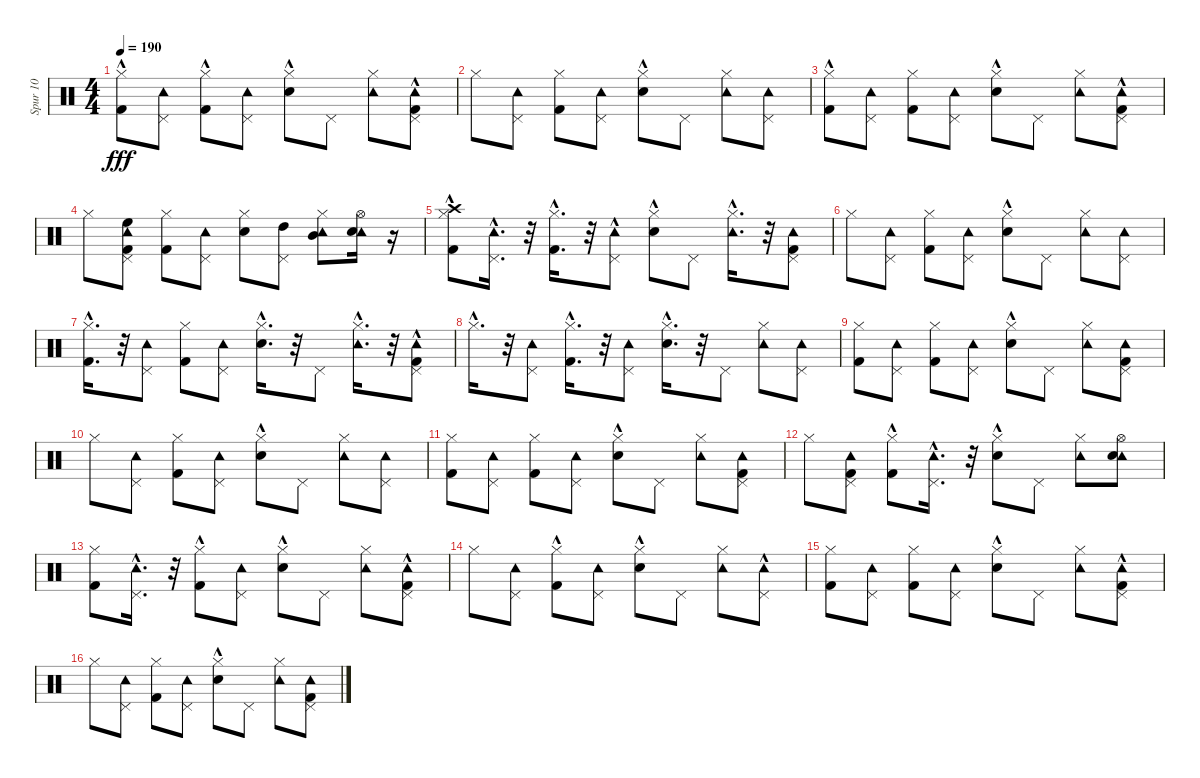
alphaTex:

\track ("Spur 10" "Spur 10") {instrument percussion}
\staff {score}
\articulation defaults
\ts (4 4)
\tempo 190
\clef neutral
\ks c
("Hi-Hat (closed)" "Kick (hit) 2"{hac}).8{dy fff} ("Tambourine (hit)" "Pedal Hi-Hat (hit)").8 ("Hi-Hat (closed)" "Kick (hit) 2"{hac}).8 ("Pedal Hi-Hat (hit)" "Tambourine (hit)").8 ("Hi-Hat (closed)" "Electric Snare (hit)"{hac}).8 "Pedal Hi-Hat (hit)".8 ("Tambourine (hit)" "Hi-Hat (closed)").8 ("Pedal Hi-Hat (hit)" "Kick (hit) 2"{hac} "Tambourine (hit)").8 |
"Hi-Hat (closed)".8 ("Tambourine (hit)" "Pedal Hi-Hat (hit)").8 ("Hi-Hat (closed)" "Kick (hit) 2").8 ("Pedal Hi-Hat (hit)" "Tambourine (hit)").8 ("Hi-Hat (closed)" "Electric Snare (hit)"{hac}).8 "Pedal Hi-Hat (hit)".8 ("Tambourine (hit)" "Hi-Hat (closed)").8 ("Pedal Hi-Hat (hit)" "Tambourine (hit)").8 |
("Hi-Hat (closed)" "Kick (hit) 2"{hac}).8 ("Tambourine (hit)" "Pedal Hi-Hat (hit)").8 ("Hi-Hat (closed)" "Kick (hit) 2").8 ("Pedal Hi-Hat (hit)" "Tambourine (hit)").8 ("Hi-Hat (closed)" "Electric Snare (hit)"{hac}).8 "Pedal Hi-Hat (hit)".8 ("Tambourine (hit)" "Hi-Hat (closed)").8 ("Pedal Hi-Hat (hit)" "Kick (hit) 2"{hac} "Tambourine (hit)").8 |
"Hi-Hat (closed)".8 ("High Floor Tom (hit)" "Tambourine (hit)" "Kick (hit) 2" "Pedal Hi-Hat (hit)").8 ("Kick (hit) 2" "Hi-Hat (closed)").8 ("Tambourine (hit)" "Pedal Hi-Hat (hit)").8 ("Electric Snare (hit)" "Hi-Hat (closed)").8 ("Pedal Hi-Hat (hit)" "High Tom (hit)").8 ("Tambourine (hit)" "Hi-Hat (closed)" "Mid Tom (hit)").8 ("Tambourine (hit)" "Electric Snare (hit)" "Hi-Hat (open)").16 r.16 |
("Crash high (hit)"{hac} "Kick (hit) 2" "Hi-Hat (closed)").8 ("Tambourine (hit)" "Pedal Hi-Hat (hit)"{hac}).16{d} r.32 ("Hi-Hat (closed)"{hac} "Kick (hit) 2").16{d} r.32 ("Tambourine (hit)"{hac} "Pedal Hi-Hat (hit)").8 ("Hi-Hat (closed)" "Electric Snare (hit)"{hac}).8 "Pedal Hi-Hat (hit)".8 ("Tambourine (hit)" "Hi-Hat (closed)"{hac}).16{d} r.32 ("Tambourine (hit)" "Pedal Hi-Hat (hit)" "Kick (hit) 2").8 |
"Hi-Hat (closed)".8 ("Tambourine (hit)" "Pedal Hi-Hat (hit)").8 ("Hi-Hat (closed)" "Kick (hit) 2").8 ("Tambourine (hit)" "Pedal Hi-Hat (hit)").8 ("Hi-Hat (closed)" "Electric Snare (hit)"{hac}).8 "Pedal Hi-Hat (hit)".8 ("Tambourine (hit)" "Hi-Hat (closed)").8 ("Tambourine (hit)" "Pedal Hi-Hat (hit)").8 |
("Hi-Hat (closed)"{hac} "Kick (hit) 2").16{d} r.32 ("Tambourine (hit)" "Pedal Hi-Hat (hit)").8 ("Hi-Hat (closed)" "Kick (hit) 2").8 ("Tambourine (hit)" "Pedal Hi-Hat (hit)").8 ("Hi-Hat (closed)"{hac} "Electric Snare (hit)"{hac}).16{d} r.32 "Pedal Hi-Hat (hit)".8 ("Tambourine (hit)" "Hi-Hat (closed)"{hac}).16{d} r.32 ("Tambourine (hit)"{hac} "Pedal Hi-Hat (hit)" "Kick (hit) 2").8 |
"Hi-Hat (closed)"{hac}.16{d} r.32 ("Tambourine (hit)" "Pedal Hi-Hat (hit)").8 ("Kick (hit) 2" "Hi-Hat (closed)"{hac}).16{d} r.32 ("Tambourine (hit)" "Pedal Hi-Hat (hit)").8 ("Hi-Hat (closed)"{hac} "Electric Snare (hit)"{hac}).16{d} r.32 "Pedal Hi-Hat (hit)".8 ("Tambourine (hit)" "Hi-Hat (closed)").8 ("Tambourine (hit)" "Pedal Hi-Hat (hit)").8 |
("Hi-Hat (closed)" "Kick (hit) 2").8 ("Pedal Hi-Hat (hit)" "Tambourine (hit)").8 ("Hi-Hat (closed)" "Kick (hit) 2").8 ("Tambourine (hit)" "Pedal Hi-Hat (hit)").8 ("Hi-Hat (closed)" "Electric Snare (hit)"{hac}).8 "Pedal Hi-Hat (hit)".8 ("Tambourine (hit)" "Hi-Hat (closed)").8 ("Tambourine (hit)" "Pedal Hi-Hat (hit)" "Kick (hit) 2").8 |
"Hi-Hat (closed)".8 ("Tambourine (hit)" "Pedal Hi-Hat (hit)").8 ("Kick (hit) 2" "Hi-Hat (closed)").8 ("Pedal Hi-Hat (hit)" "Tambourine (hit)").8 ("Hi-Hat (closed)" "Electric Snare (hit)"{hac}).8 "Pedal Hi-Hat (hit)".8 ("Tambourine (hit)" "Hi-Hat (closed)").8 ("Tambourine (hit)" "Pedal Hi-Hat (hit)").8 |
("Hi-Hat (closed)" "Kick (hit) 2").8 ("Pedal Hi-Hat (hit)" "Tambourine (hit)").8 ("Kick (hit) 2" "Hi-Hat (closed)").8 ("Tambourine (hit)" "Pedal Hi-Hat (hit)").8 ("Hi-Hat (closed)" "Electric Snare (hit)"{hac}).8 "Pedal Hi-Hat (hit)".8 ("Tambourine (hit)" "Hi-Hat (closed)").8 ("Tambourine (hit)" "Pedal Hi-Hat (hit)" "Kick (hit) 2").8 |
"Hi-Hat (closed)".8 ("Tambourine (hit)" "Pedal Hi-Hat (hit)" "Kick (hit) 2").8 ("Hi-Hat (closed)" "Kick (hit) 2"{hac}).8 ("Pedal Hi-Hat (hit)"{hac} "Tambourine (hit)").16{d} r.32 ("Hi-Hat (closed)" "Electric Snare (hit)"{hac}).8 "Pedal Hi-Hat (hit)".8 ("Tambourine (hit)" "Hi-Hat (closed)").8 ("Tambourine (hit)" "Hi-Hat (open)" "Electric Snare (hit)").8 |
("Hi-Hat (closed)" "Kick (hit) 2").8 ("Tambourine (hit)" "Pedal Hi-Hat (hit)"{hac}).16{d} r.32 ("Kick (hit) 2"{hac} "Hi-Hat (closed)").8 ("Tambourine (hit)" "Pedal Hi-Hat (hit)").8 ("Hi-Hat (closed)" "Electric Snare (hit)"{hac}).8 "Pedal Hi-Hat (hit)".8 ("Tambourine (hit)" "Hi-Hat (closed)").8 ("Tambourine (hit)" "Pedal Hi-Hat (hit)" "Kick (hit) 2"{hac}).8 |
"Hi-Hat (closed)".8 ("Tambourine (hit)" "Pedal Hi-Hat (hit)").8 ("Hi-Hat (closed)" "Kick (hit) 2"{hac}).8 ("Pedal Hi-Hat (hit)" "Tambourine (hit)").8 ("Hi-Hat (closed)" "Electric Snare (hit)"{hac}).8 "Pedal Hi-Hat (hit)".8 ("Tambourine (hit)" "Hi-Hat (closed)").8 ("Tambourine (hit)"{hac} "Pedal Hi-Hat (hit)").8 |
("Hi-Hat (closed)" "Kick (hit) 2").8 ("Tambourine (hit)" "Pedal Hi-Hat (hit)").8 ("Hi-Hat (closed)" "Kick (hit) 2").8 ("Tambourine (hit)" "Pedal Hi-Hat (hit)").8 ("Hi-Hat (closed)" "Electric Snare (hit)"{hac}).8 "Pedal Hi-Hat (hit)".8 ("Tambourine (hit)" "Hi-Hat (closed)").8 ("Tambourine (hit)" "Pedal Hi-Hat (hit)" "Kick (hit) 2"{hac}).8 |
"Hi-Hat (closed)".8 ("Tambourine (hit)" "Pedal Hi-Hat (hit)").8 ("Hi-Hat (closed)" "Kick (hit) 2").8 ("Tambourine (hit)" "Pedal Hi-Hat (hit)").8 ("Hi-Hat (closed)" "Electric Snare (hit)"{hac}).8 "Pedal Hi-Hat (hit)".8 ("Tambourine (hit)" "Hi-Hat (closed)").8 ("Tambourine (hit)" "Pedal Hi-Hat (hit)" "Kick (hit) 2").8
